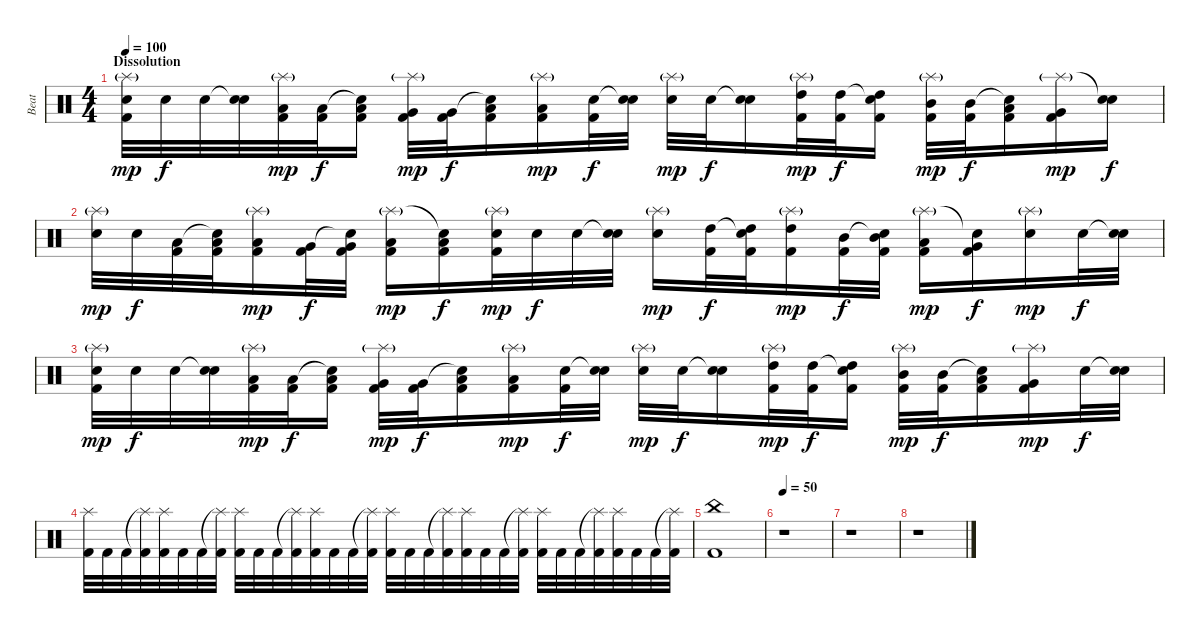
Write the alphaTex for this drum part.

\track ("Beat" "Beat") {instrument percussion}
\staff {score}
\articulation defaults
\ts (4 4)
\section ("" "Dissolution")
\tempo 100
\clef neutral
\ks c
("Splash (hit)"{g} "Snare (hit) 2" "Kick (hit) 2").32{dy mp} "Snare (hit) 2".32{dy f} "Snare (hit) 2".32 ("Snare (hit)"{t} "Snare (hit) 2").32 ("Splash (hit)"{g} "Low Tom (hit)" "Kick (hit) 2").32{dy mp} ("Low Tom (hit)" "Kick (hit) 2").32{dy f} ("Snare (hit)"{t} "Low Tom (hit)" "Kick (hit) 2").16 ("Splash (hit)"{g} "Very Low Tom (hit)" "Kick (hit) 2").32{dy mp} ("Very Low Tom (hit)" "Kick (hit) 2").32{dy f} ("Snare (hit)"{t} "Low Floor Tom (hit)" "Kick (hit) 2").16 ("Splash (hit)"{g} "Low Floor Tom (hit)" "Kick (hit) 2").16{dy mp} ("Snare (hit) 2" "Kick (hit) 2").32{dy f} ("Snare (hit)"{t} "Snare (hit) 2").32 ("Splash (hit)"{g} "Snare (hit) 2").32{dy mp} "Snare (hit) 2".32{dy f} ("Snare (hit)"{t} "Snare (hit) 2").16 ("Splash (hit)"{g} "High Tom (hit)" "Kick (hit) 2").32{dy mp} ("High Tom (hit)" "Kick (hit) 2").32{dy f} ("Snare (hit)"{t} "High Tom (hit)" "Kick (hit) 2").16 ("Splash (hit)"{g} "Mid Tom (hit)" "Kick (hit) 2").32{dy mp} ("Mid Tom (hit)" "Kick (hit) 2").32{dy f} ("Snare (hit)"{t} "Low Tom (hit)" "Kick (hit) 2").16 ("Splash (hit)"{g} "Very Low Tom (hit)" "Kick (hit) 2").16{dy mp} ("Snare (hit)"{t} "Snare (hit) 2").16{dy f} |
("Splash (hit)"{g} "Snare (hit) 2").32{dy mp} "Snare (hit) 2".32{dy f} ("Low Tom (hit)" "Kick (hit) 2").32 ("Snare (hit)"{t} "Low Tom (hit)" "Kick (hit) 2").32 ("Splash (hit)"{g} "Low Tom (hit)" "Kick (hit) 2").16{dy mp} ("Very Low Tom (hit)" "Kick (hit) 2").32{dy f} ("Snare (hit)"{t} "Very Low Tom (hit)" "Kick (hit) 2").32 ("Splash (hit)"{g} "Low Floor Tom (hit)" "Kick (hit) 2").16{dy mp} ("Snare (hit)"{t} "Low Floor Tom (hit)" "Kick (hit) 2").16{dy f} ("Splash (hit)"{g} "Snare (hit) 2" "Kick (hit) 2").32{dy mp} "Snare (hit) 2".32{dy f} "Snare (hit) 2".32 ("Snare (hit)"{t} "Snare (hit) 2").32 ("Splash (hit)"{g} "Snare (hit) 2").16{dy mp} ("High Tom (hit)" "Kick (hit) 2").32{dy f} ("Snare (hit)"{t} "High Tom (hit)" "Kick (hit) 2").32 ("Splash (hit)"{g} "High Tom (hit)" "Kick (hit) 2").16{dy mp} ("Mid Tom (hit)" "Kick (hit) 2").32{dy f} ("Snare (hit)"{t} "Mid Tom (hit)" "Kick (hit) 2").32 ("Splash (hit)"{g} "Low Tom (hit)" "Kick (hit) 2").16{dy mp} ("Snare (hit)"{t} "Very Low Tom (hit)" "Kick (hit) 2").16{dy f} ("Splash (hit)"{g} "Snare (hit) 2").16{dy mp} "Snare (hit) 2".32{dy f} ("Snare (hit)"{t} "Snare (hit) 2").32 |
("Splash (hit)"{g} "Snare (hit) 2" "Kick (hit) 2").32{dy mp} "Snare (hit) 2".32{dy f} "Snare (hit) 2".32 ("Snare (hit)"{t} "Snare (hit) 2").32 ("Splash (hit)"{g} "Low Tom (hit)" "Kick (hit) 2").32{dy mp} ("Low Tom (hit)" "Kick (hit) 2").32{dy f} ("Snare (hit)"{t} "Low Tom (hit)" "Kick (hit) 2").16 ("Splash (hit)"{g} "Very Low Tom (hit)" "Kick (hit) 2").32{dy mp} ("Very Low Tom (hit)" "Kick (hit) 2").32{dy f} ("Snare (hit)"{t} "Low Floor Tom (hit)" "Kick (hit) 2").16 ("Splash (hit)"{g} "Low Floor Tom (hit)" "Kick (hit) 2").16{dy mp} ("Snare (hit) 2" "Kick (hit) 2").32{dy f} ("Snare (hit)"{t} "Snare (hit) 2").32 ("Splash (hit)"{g} "Snare (hit) 2").32{dy mp} "Snare (hit) 2".32{dy f} ("Snare (hit)"{t} "Snare (hit) 2").16 ("Splash (hit)"{g} "High Tom (hit)" "Kick (hit) 2").32{dy mp} ("High Tom (hit)" "Kick (hit) 2").32{dy f} ("Snare (hit)"{t} "High Tom (hit)" "Kick (hit) 2").16 ("Splash (hit)"{g} "Mid Tom (hit)" "Kick (hit) 2").32{dy mp} ("Mid Tom (hit)" "Kick (hit) 2").32{dy f} ("Snare (hit)"{t} "Low Tom (hit)" "Kick (hit) 2").16 ("Splash (hit)"{g} "Very Low Tom (hit)" "Kick (hit) 2").16{dy mp} "Snare (hit) 2".32{dy f} ("Snare (hit)"{t} "Snare (hit) 2").32 |
("Splash (hit)" "Kick (hit) 2").32 "Kick (hit) 2".32 "Kick (hit) 2".32 ("Splash (hit)"{t} "Kick (hit) 2").32 ("Splash (hit)" "Kick (hit) 2").32 "Kick (hit) 2".32 "Kick (hit) 2".32 ("Splash (hit)"{t} "Kick (hit) 2").32 ("Splash (hit)" "Kick (hit) 2").32 "Kick (hit) 2".32 "Kick (hit) 2".32 ("Splash (hit)"{t} "Kick (hit) 2").32 ("Splash (hit)" "Kick (hit) 2").32 "Kick (hit) 2".32 "Kick (hit) 2".32 ("Splash (hit)"{t} "Kick (hit) 2").32 ("Splash (hit)" "Kick (hit) 2").32 "Kick (hit) 2".32 "Kick (hit) 2".32 ("Splash (hit)"{t} "Kick (hit) 2").32 ("Splash (hit)" "Kick (hit) 2").32 "Kick (hit) 2".32 "Kick (hit) 2".32 ("Splash (hit)"{t} "Kick (hit) 2").32 ("Splash (hit)" "Kick (hit) 2").32 "Kick (hit) 2".32 "Kick (hit) 2".32 ("Splash (hit)"{t} "Kick (hit) 2").32 ("Splash (hit)" "Kick (hit) 2").32 "Kick (hit) 2".32 "Kick (hit) 2".32 ("Splash (hit)"{t} "Kick (hit) 2").32 |
("China (hit)" "Kick (hit) 2").1 |
\tempo 50
r.1 |
r.1 |
r.1
